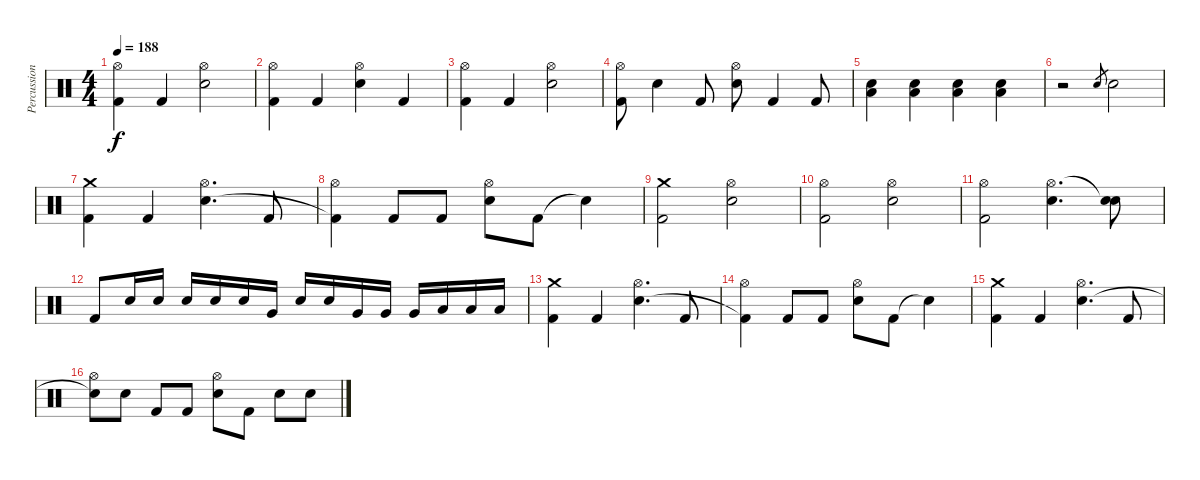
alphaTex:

\track ("Percussion" "Percussion") {instrument percussion}
\staff {score}
\articulation defaults
\ts (4 4)
\tempo 188
\clef neutral
\ks c
("Hi-Hat (open)" "Kick (hit) 2").4{dy f} "Kick (hit) 2".4 ("Hi-Hat (open)" "Electric Snare (hit)").2 |
("Hi-Hat (open)" "Kick (hit) 2").4 "Kick (hit) 2".4 ("Hi-Hat (open)" "Electric Snare (hit)").4 "Kick (hit) 2".4 |
("Hi-Hat (open)" "Kick (hit) 2").4 "Kick (hit) 2".4 ("Hi-Hat (open)" "Electric Snare (hit)").2 |
("Hi-Hat (open)" "Kick (hit) 2").8 "Electric Snare (hit)".4 "Kick (hit) 2".8 ("Hi-Hat (open)" "Electric Snare (hit)").8 "Kick (hit) 2".4 "Kick (hit) 2".8 |
("Electric Snare (hit)" "Low Floor Tom (hit)").4 ("Electric Snare (hit)" "Low Floor Tom (hit)").4 ("Electric Snare (hit)" "Low Floor Tom (hit)").4 ("Electric Snare (hit)" "Low Floor Tom (hit)").4 |
r.2 "Electric Snare (hit)".8{gr} "Electric Snare (hit)".2 |
("Crash medium (hit)" "Kick (hit) 2").4 "Kick (hit) 2".4 ("Hi-Hat (open)" "Electric Snare (hit)").4{d} "Kick (hit) 2".8 |
("Hi-Hat (open)" "Kick (hit) 2"{t}).4 "Kick (hit) 2".8 "Kick (hit) 2".8 ("Hi-Hat (open)" "Electric Snare (hit)").8 "Kick (hit) 2".8 "Snare (hit)"{t}.4 |
("Crash medium (hit)" "Kick (hit) 2").2 ("Hi-Hat (open)" "Electric Snare (hit)").2 |
("Hi-Hat (open)" "Kick (hit) 2").2 ("Hi-Hat (open)" "Electric Snare (hit)").2 |
("Hi-Hat (open)" "Kick (hit) 2").2 ("Hi-Hat (open)" "Electric Snare (hit)").4{d} ("Snare (hit)"{t} "Electric Snare (hit)").8 |
"Kick (hit) 2".8 "Electric Snare (hit)".16 "Electric Snare (hit)".16 "Electric Snare (hit)".16 "Electric Snare (hit)".16 "Electric Snare (hit)".16 "Very Low Tom (hit)".16 "Electric Snare (hit)".16 "Electric Snare (hit)".16 "Very Low Tom (hit)".16 "Very Low Tom (hit)".16 "Very Low Tom (hit)".16 "Low Floor Tom (hit)".16 "Low Floor Tom (hit)".16 "Low Floor Tom (hit)".16 |
("Crash medium (hit)" "Kick (hit) 2").4 "Kick (hit) 2".4 ("Hi-Hat (open)" "Electric Snare (hit)").4{d} "Kick (hit) 2".8 |
("Hi-Hat (open)" "Kick (hit) 2"{t}).4 "Kick (hit) 2".8 "Kick (hit) 2".8 ("Hi-Hat (open)" "Electric Snare (hit)").8 "Kick (hit) 2".8 "Snare (hit)"{t}.4 |
("Crash medium (hit)" "Kick (hit) 2").4 "Kick (hit) 2".4 ("Hi-Hat (open)" "Electric Snare (hit)").4{d} "Kick (hit) 2".8 |
("Hi-Hat (open)" "Snare (hit)"{t}).8 "Electric Snare (hit)".8 "Kick (hit) 2".8 "Kick (hit) 2".8 ("Hi-Hat (open)" "Electric Snare (hit)").8 "Kick (hit) 2".8 "Electric Snare (hit)".8 "Electric Snare (hit)".8
